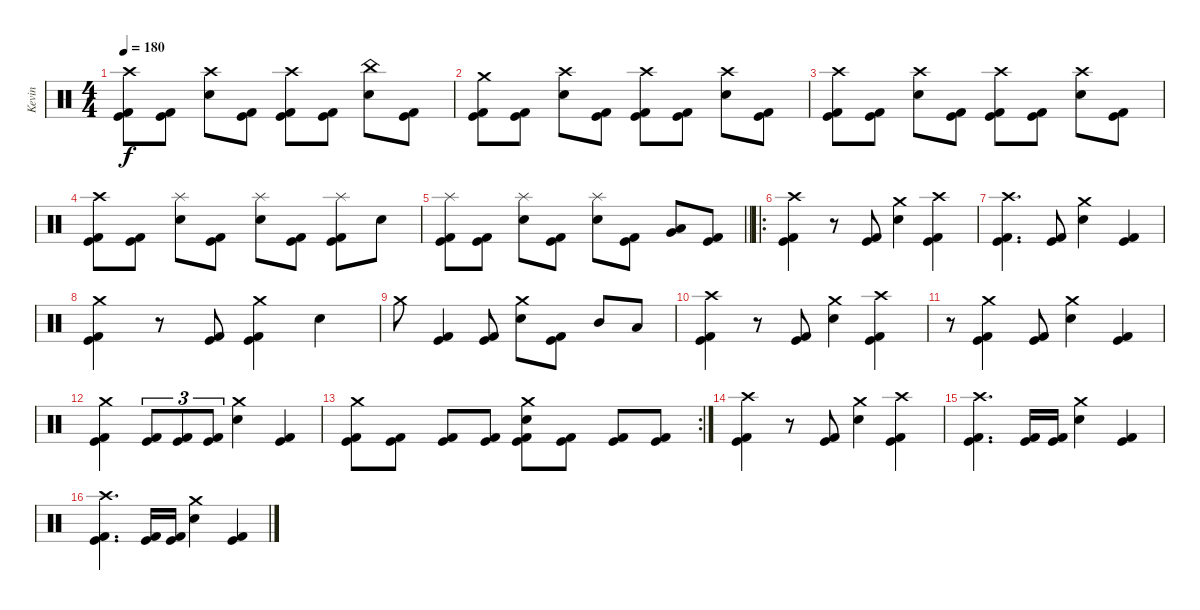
\track ("Kevin" "Kevin") {instrument percussion}
\staff {score}
\articulation defaults
\ts (4 4)
\tempo 180
\clef neutral
\ks c
("Crash high (hit)" "Kick (hit)" "Kick (hit) 2").8{dy f} ("Kick (hit)" "Kick (hit) 2").8 ("Crash high (hit)" "Electric Snare (hit)").8 ("Kick (hit)" "Kick (hit) 2").8 ("Crash high (hit)" "Kick (hit)" "Kick (hit) 2").8 ("Kick (hit)" "Kick (hit) 2").8 ("China (hit)" "Electric Snare (hit)").8 ("Kick (hit)" "Kick (hit) 2").8 |
("Crash medium (hit)" "Kick (hit)" "Kick (hit) 2").8 ("Kick (hit)" "Kick (hit) 2").8 ("Crash high (hit)" "Electric Snare (hit)").8 ("Kick (hit)" "Kick (hit) 2").8 ("Crash high (hit)" "Kick (hit)" "Kick (hit) 2").8 ("Kick (hit) 2" "Kick (hit)").8 ("Crash high (hit)" "Electric Snare (hit)").8 ("Kick (hit)" "Kick (hit) 2").8 |
("Crash high (hit)" "Kick (hit)" "Kick (hit) 2").8 ("Kick (hit)" "Kick (hit) 2").8 ("Crash high (hit)" "Electric Snare (hit)").8 ("Kick (hit)" "Kick (hit) 2").8 ("Crash high (hit)" "Kick (hit)" "Kick (hit) 2").8 ("Kick (hit)" "Kick (hit) 2").8 ("Crash high (hit)" "Electric Snare (hit)").8 ("Kick (hit)" "Kick (hit) 2").8 |
("Crash high (hit)" "Kick (hit)" "Kick (hit) 2").8 ("Kick (hit)" "Kick (hit) 2").8 ("Splash (hit)" "Electric Snare (hit)").8 ("Kick (hit)" "Kick (hit) 2").8 ("Splash (hit)" "Electric Snare (hit)").8 ("Kick (hit)" "Kick (hit) 2").8 ("Splash (hit)" "Kick (hit)" "Kick (hit) 2").8 "Electric Snare (hit)".8 |
\barLineRight lightlight
("Splash (hit)" "Kick (hit)" "Kick (hit) 2").8 ("Kick (hit)" "Kick (hit) 2").8 ("Splash (hit)" "Electric Snare (hit)").8 ("Kick (hit)" "Kick (hit) 2").8 ("Splash (hit)" "Electric Snare (hit)").8 ("Kick (hit)" "Kick (hit) 2").8 ("Low Tom (hit)" "Very Low Tom (hit)").8 ("Kick (hit)" "Kick (hit) 2").8 |
\ro
\section ("" "")
("Crash high (hit)" "Kick (hit)" "Kick (hit) 2").4 r.8 ("Kick (hit)" "Kick (hit) 2").8 ("Crash medium (hit)" "Electric Snare (hit)").4 ("Crash high (hit)" "Kick (hit)" "Kick (hit) 2").4 |
("Crash high (hit)" "Kick (hit)" "Kick (hit) 2").4{d} ("Kick (hit)" "Kick (hit) 2").8 ("Crash medium (hit)" "Electric Snare (hit)").4 ("Kick (hit)" "Kick (hit) 2").4 |
("Crash medium (hit)" "Kick (hit)" "Kick (hit) 2").4 r.8 ("Kick (hit)" "Kick (hit) 2").8 ("Crash medium (hit)" "Kick (hit)" "Kick (hit) 2").4 "Electric Snare (hit)".4 |
"Crash medium (hit)".8 ("Kick (hit)" "Kick (hit) 2").4 ("Kick (hit)" "Kick (hit) 2").8 ("Crash medium (hit)" "Electric Snare (hit)").8 ("Kick (hit)" "Kick (hit) 2").8 "Mid Tom (hit)".8 "Low Tom (hit)".8 |
("Crash high (hit)" "Kick (hit)" "Kick (hit) 2").4 r.8 ("Kick (hit)" "Kick (hit) 2").8 ("Crash medium (hit)" "Electric Snare (hit)").4 ("Crash high (hit)" "Kick (hit)" "Kick (hit) 2").4 |
r.8 ("Crash medium (hit)" "Kick (hit)" "Kick (hit) 2").4 ("Kick (hit)" "Kick (hit) 2").8 ("Crash medium (hit)" "Electric Snare (hit)").4 ("Kick (hit)" "Kick (hit) 2").4 |
("Crash medium (hit)" "Kick (hit)" "Kick (hit) 2").4 ("Kick (hit)" "Kick (hit) 2").8{tu (3 2)} ("Kick (hit)" "Kick (hit) 2").8{tu (3 2)} ("Kick (hit)" "Kick (hit) 2").8{tu (3 2)} ("Crash medium (hit)" "Electric Snare (hit)").4 ("Kick (hit)" "Kick (hit) 2").4 |
\rc 2
("Crash medium (hit)" "Kick (hit)" "Kick (hit) 2").8 ("Kick (hit)" "Kick (hit) 2").8 ("Kick (hit)" "Kick (hit) 2").8 ("Kick (hit)" "Kick (hit) 2").8 ("Crash medium (hit)" "Electric Snare (hit)" "Kick (hit)" "Kick (hit) 2").8 ("Kick (hit)" "Kick (hit) 2").8 ("Kick (hit)" "Kick (hit) 2").8 ("Kick (hit)" "Kick (hit) 2").8 |
("Crash high (hit)" "Kick (hit)" "Kick (hit) 2").4 r.8 ("Kick (hit)" "Kick (hit) 2").8 ("Crash medium (hit)" "Electric Snare (hit)").4 ("Crash high (hit)" "Kick (hit)" "Kick (hit) 2").4 |
("Crash high (hit)" "Kick (hit)" "Kick (hit) 2").4{d} ("Kick (hit)" "Kick (hit) 2").16 ("Kick (hit)" "Kick (hit) 2").16 ("Crash medium (hit)" "Electric Snare (hit)").4 ("Kick (hit)" "Kick (hit) 2").4 |
("Crash high (hit)" "Kick (hit)" "Kick (hit) 2").4{d} ("Kick (hit)" "Kick (hit) 2").16 ("Kick (hit)" "Kick (hit) 2").16 ("Crash medium (hit)" "Electric Snare (hit)").4 ("Kick (hit)" "Kick (hit) 2").4
